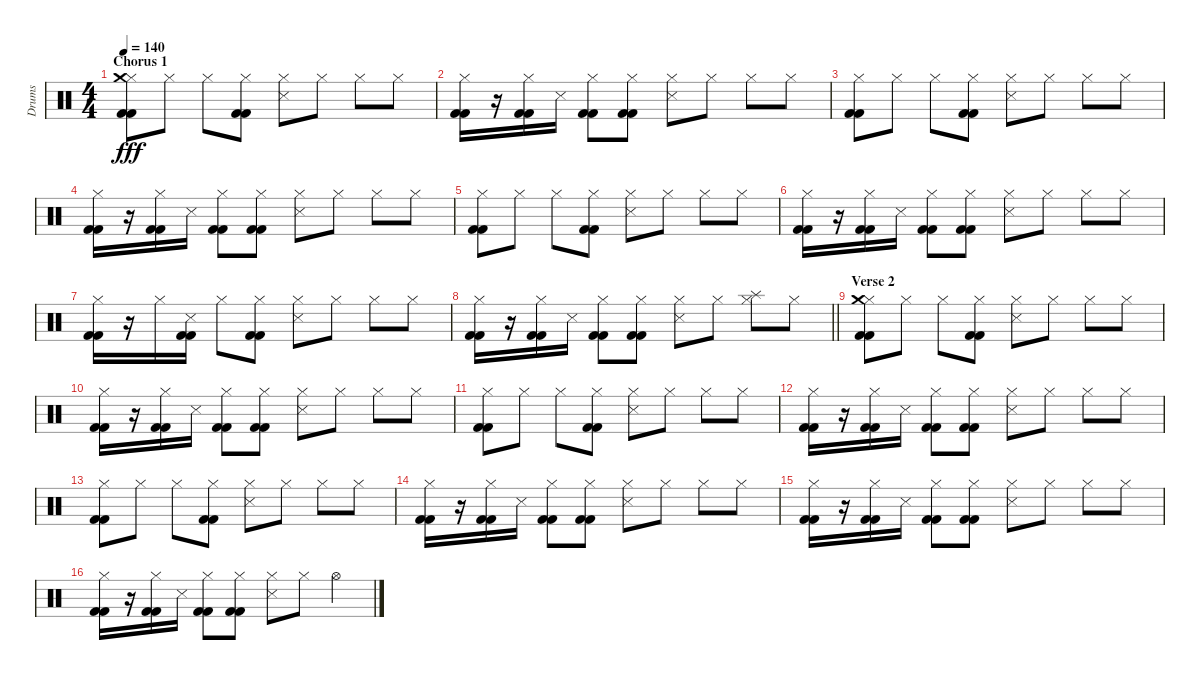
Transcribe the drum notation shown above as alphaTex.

\track ("Drums" "Drums") {instrument percussion}
\staff {score}
\articulation defaults
\ts (4 4)
\section ("" "Chorus 1")
\tempo 140
\clef neutral
\ks c
("Hi-Hat (closed)" "Kick (hit) 2" "Crash medium (hit)" "Kick (hit) 2").8{dy fff} "Hi-Hat (closed)".8 "Hi-Hat (closed)".8 ("Hi-Hat (closed)" "Kick (hit) 2" "Kick (hit) 2").8 ("Hi-Hat (closed)" "Snare (side stick) 3").8 "Hi-Hat (closed)".8 "Hi-Hat (closed)".8 "Hi-Hat (closed)".8 |
("Kick (hit) 2" "Hi-Hat (closed)" "Kick (hit) 2").16 r.16 ("Kick (hit) 2" "Kick (hit) 2" "Hi-Hat (closed)").16 "Snare (side stick) 3".16 ("Kick (hit) 2" "Kick (hit) 2" "Hi-Hat (closed)").8 ("Kick (hit) 2" "Kick (hit) 2" "Hi-Hat (closed)").8 ("Snare (side stick) 3" "Hi-Hat (closed)").8 "Hi-Hat (closed)".8 "Hi-Hat (closed)".8 "Hi-Hat (closed)".8 |
("Hi-Hat (closed)" "Kick (hit) 2" "Kick (hit) 2").8 "Hi-Hat (closed)".8 "Hi-Hat (closed)".8 ("Hi-Hat (closed)" "Kick (hit) 2" "Kick (hit) 2").8 ("Hi-Hat (closed)" "Snare (side stick) 3").8 "Hi-Hat (closed)".8 "Hi-Hat (closed)".8 "Hi-Hat (closed)".8 |
("Kick (hit) 2" "Hi-Hat (closed)" "Kick (hit) 2").16 r.16 ("Kick (hit) 2" "Kick (hit) 2" "Hi-Hat (closed)").16 "Snare (side stick) 3".16 ("Kick (hit) 2" "Kick (hit) 2" "Hi-Hat (closed)").8 ("Kick (hit) 2" "Kick (hit) 2" "Hi-Hat (closed)").8 ("Snare (side stick) 3" "Hi-Hat (closed)").8 "Hi-Hat (closed)".8 "Hi-Hat (closed)".8 "Hi-Hat (closed)".8 |
("Hi-Hat (closed)" "Kick (hit) 2" "Kick (hit) 2").8 "Hi-Hat (closed)".8 "Hi-Hat (closed)".8 ("Hi-Hat (closed)" "Kick (hit) 2" "Kick (hit) 2").8 ("Hi-Hat (closed)" "Snare (side stick) 3").8 "Hi-Hat (closed)".8 "Hi-Hat (closed)".8 "Hi-Hat (closed)".8 |
("Kick (hit) 2" "Hi-Hat (closed)" "Kick (hit) 2").16 r.16 ("Kick (hit) 2" "Kick (hit) 2" "Hi-Hat (closed)").16 "Snare (side stick) 3".16 ("Kick (hit) 2" "Kick (hit) 2" "Hi-Hat (closed)").8 ("Kick (hit) 2" "Kick (hit) 2" "Hi-Hat (closed)").8 ("Snare (side stick) 3" "Hi-Hat (closed)").8 "Hi-Hat (closed)".8 "Hi-Hat (closed)".8 "Hi-Hat (closed)".8 |
("Kick (hit) 2" "Hi-Hat (closed)" "Kick (hit) 2").16 r.16 "Hi-Hat (closed)".16 ("Snare (side stick) 3" "Kick (hit) 2" "Kick (hit) 2").16 "Hi-Hat (closed)".8 ("Kick (hit) 2" "Kick (hit) 2" "Hi-Hat (closed)").8 ("Snare (side stick) 3" "Hi-Hat (closed)").8 "Hi-Hat (closed)".8 "Hi-Hat (closed)".8 "Hi-Hat (closed)".8 |
\barLineRight lightlight
("Kick (hit) 2" "Hi-Hat (closed)" "Kick (hit) 2").16 r.16 ("Kick (hit) 2" "Kick (hit) 2" "Hi-Hat (closed)").16 "Snare (side stick) 3".16 ("Kick (hit) 2" "Kick (hit) 2" "Hi-Hat (closed)").8 ("Kick (hit) 2" "Kick (hit) 2" "Hi-Hat (closed)").8 ("Snare (side stick) 3" "Hi-Hat (closed)").8 "Hi-Hat (closed)".8 ("Hi-Hat (closed)" "Splash (hit)").8 "Hi-Hat (closed)".8 |
\section ("" "Verse 2")
("Hi-Hat (closed)" "Kick (hit) 2" "Crash medium (hit)" "Kick (hit) 2").8 "Hi-Hat (closed)".8 "Hi-Hat (closed)".8 ("Hi-Hat (closed)" "Kick (hit) 2" "Kick (hit) 2").8 ("Hi-Hat (closed)" "Snare (side stick) 3").8 "Hi-Hat (closed)".8 "Hi-Hat (closed)".8 "Hi-Hat (closed)".8 |
("Kick (hit) 2" "Hi-Hat (closed)" "Kick (hit) 2").16 r.16 ("Kick (hit) 2" "Kick (hit) 2" "Hi-Hat (closed)").16 "Snare (side stick) 3".16 ("Kick (hit) 2" "Kick (hit) 2" "Hi-Hat (closed)").8 ("Kick (hit) 2" "Kick (hit) 2" "Hi-Hat (closed)").8 ("Snare (side stick) 3" "Hi-Hat (closed)").8 "Hi-Hat (closed)".8 "Hi-Hat (closed)".8 "Hi-Hat (closed)".8 |
("Hi-Hat (closed)" "Kick (hit) 2" "Kick (hit) 2").8 "Hi-Hat (closed)".8 "Hi-Hat (closed)".8 ("Hi-Hat (closed)" "Kick (hit) 2" "Kick (hit) 2").8 ("Hi-Hat (closed)" "Snare (side stick) 3").8 "Hi-Hat (closed)".8 "Hi-Hat (closed)".8 "Hi-Hat (closed)".8 |
("Kick (hit) 2" "Hi-Hat (closed)" "Kick (hit) 2").16 r.16 ("Kick (hit) 2" "Kick (hit) 2" "Hi-Hat (closed)").16 "Snare (side stick) 3".16 ("Kick (hit) 2" "Kick (hit) 2" "Hi-Hat (closed)").8 ("Kick (hit) 2" "Kick (hit) 2" "Hi-Hat (closed)").8 ("Snare (side stick) 3" "Hi-Hat (closed)").8 "Hi-Hat (closed)".8 "Hi-Hat (closed)".8 "Hi-Hat (closed)".8 |
("Hi-Hat (closed)" "Kick (hit) 2" "Kick (hit) 2").8 "Hi-Hat (closed)".8 "Hi-Hat (closed)".8 ("Hi-Hat (closed)" "Kick (hit) 2" "Kick (hit) 2").8 ("Hi-Hat (closed)" "Snare (side stick) 3").8 "Hi-Hat (closed)".8 "Hi-Hat (closed)".8 "Hi-Hat (closed)".8 |
("Kick (hit) 2" "Hi-Hat (closed)" "Kick (hit) 2").16 r.16 ("Kick (hit) 2" "Kick (hit) 2" "Hi-Hat (closed)").16 "Snare (side stick) 3".16 ("Kick (hit) 2" "Kick (hit) 2" "Hi-Hat (closed)").8 ("Kick (hit) 2" "Kick (hit) 2" "Hi-Hat (closed)").8 ("Snare (side stick) 3" "Hi-Hat (closed)").8 "Hi-Hat (closed)".8 "Hi-Hat (closed)".8 "Hi-Hat (closed)".8 |
("Kick (hit) 2" "Hi-Hat (closed)" "Kick (hit) 2").16 r.16 ("Kick (hit) 2" "Kick (hit) 2" "Hi-Hat (closed)").16 "Snare (side stick) 3".16 ("Kick (hit) 2" "Kick (hit) 2" "Hi-Hat (closed)").8 ("Kick (hit) 2" "Kick (hit) 2" "Hi-Hat (closed)").8 ("Snare (side stick) 3" "Hi-Hat (closed)").8 "Hi-Hat (closed)".8 "Hi-Hat (closed)".8 "Hi-Hat (closed)".8 |
("Kick (hit) 2" "Hi-Hat (closed)" "Kick (hit) 2").16 r.16 ("Kick (hit) 2" "Kick (hit) 2" "Hi-Hat (closed)").16 "Snare (side stick) 3".16 ("Kick (hit) 2" "Kick (hit) 2" "Hi-Hat (closed)").8 ("Kick (hit) 2" "Kick (hit) 2" "Hi-Hat (closed)").8 ("Snare (side stick) 3" "Hi-Hat (closed)").8 "Hi-Hat (closed)".8 "Hi-Hat (open)".4
